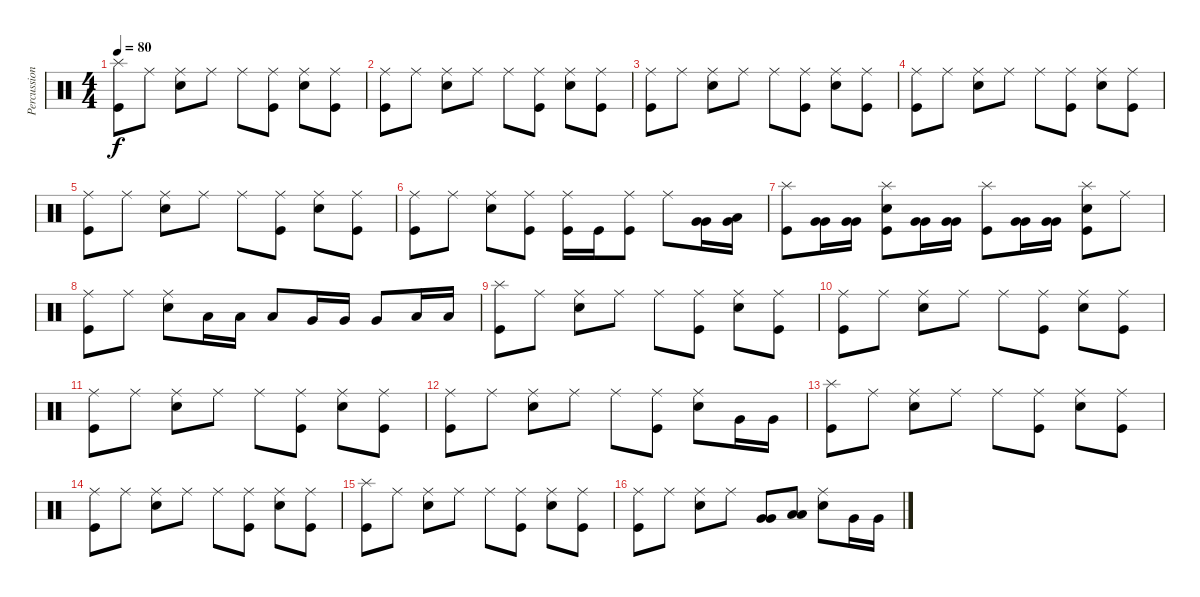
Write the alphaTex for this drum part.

\track ("Percussions" "Percussion") {instrument percussion}
\staff {score}
\articulation defaults
\ts (4 4)
\tempo 80
\clef neutral
\ks c
("Splash (hit)" "Kick (hit)").8{dy f} "Ride (middle)".8 ("Ride (middle)" "Snare (hit) 2").8 "Ride (middle)".8 "Ride (middle)".8 ("Ride (middle)" "Kick (hit)").8 ("Ride (middle)" "Snare (hit) 2").8 ("Ride (middle)" "Kick (hit)").8 |
("Ride (middle)" "Kick (hit)").8 "Ride (middle)".8 ("Ride (middle)" "Snare (hit) 2").8 "Ride (middle)".8 "Ride (middle)".8 ("Ride (middle)" "Kick (hit)").8 ("Ride (middle)" "Snare (hit) 2").8 ("Ride (middle)" "Kick (hit)").8 |
("Ride (middle)" "Kick (hit)").8 "Ride (middle)".8 ("Ride (middle)" "Snare (hit) 2").8 "Ride (middle)".8 "Ride (middle)".8 ("Ride (middle)" "Kick (hit)").8 ("Ride (middle)" "Snare (hit) 2").8 ("Ride (middle)" "Kick (hit)").8 |
("Ride (middle)" "Kick (hit)").8 "Ride (middle)".8 ("Ride (middle)" "Snare (hit) 2").8 "Ride (middle)".8 "Ride (middle)".8 ("Ride (middle)" "Kick (hit)").8 ("Ride (middle)" "Snare (hit) 2").8 ("Ride (middle)" "Kick (hit)").8 |
("Ride (middle)" "Kick (hit)").8 "Ride (middle)".8 ("Ride (middle)" "Snare (hit) 2").8 "Ride (middle)".8 "Ride (middle)".8 ("Ride (middle)" "Kick (hit)").8 ("Ride (middle)" "Snare (hit) 2").8 ("Ride (middle)" "Kick (hit)").8 |
("Ride (middle)" "Kick (hit)").8 "Ride (middle)".8 ("Ride (middle)" "Snare (hit) 2").8 ("Ride (middle)" "Kick (hit)").8 ("Ride (middle)" "Kick (hit)").16 "Kick (hit)".16 ("Ride (middle)" "Kick (hit)").8 "Ride (middle)".8 ("Very Low Tom (hit)" "Very Low Tom (hit)").16 ("Low Tom (hit)" "Very Low Tom (hit)").16 |
("Splash (hit)" "Kick (hit)").8 ("Very Low Tom (hit)" "Very Low Tom (hit)").16 ("Very Low Tom (hit)" "Very Low Tom (hit)").16 ("Splash (hit)" "Snare (hit) 2" "Kick (hit)").8 ("Very Low Tom (hit)" "Very Low Tom (hit)").16 ("Very Low Tom (hit)" "Very Low Tom (hit)").16 ("Splash (hit)" "Kick (hit)").8 ("Very Low Tom (hit)" "Very Low Tom (hit)").16 ("Very Low Tom (hit)" "Very Low Tom (hit)").16 ("Splash (hit)" "Snare (hit) 2" "Kick (hit)").8 "Ride (middle)".8 |
("Ride (middle)" "Kick (hit)").8 "Ride (middle)".8 ("Ride (middle)" "Snare (hit) 2").8 "Low Tom (hit)".16 "Low Tom (hit)".16 "Low Tom (hit)".8 "Very Low Tom (hit)".16 "Very Low Tom (hit)".16 "Very Low Tom (hit)".8 "Low Floor Tom (hit)".16 "Low Floor Tom (hit)".16 |
("Splash (hit)" "Kick (hit)").8 "Ride (middle)".8 ("Ride (middle)" "Snare (hit) 2").8 "Ride (middle)".8 "Ride (middle)".8 ("Ride (middle)" "Kick (hit)").8 ("Ride (middle)" "Snare (hit) 2").8 ("Ride (middle)" "Kick (hit)").8 |
("Ride (middle)" "Kick (hit)").8 "Ride (middle)".8 ("Ride (middle)" "Snare (hit) 2").8 "Ride (middle)".8 "Ride (middle)".8 ("Ride (middle)" "Kick (hit)").8 ("Ride (middle)" "Snare (hit) 2").8 ("Ride (middle)" "Kick (hit)").8 |
("Ride (middle)" "Kick (hit)").8 "Ride (middle)".8 ("Ride (middle)" "Snare (hit) 2").8 "Ride (middle)".8 "Ride (middle)".8 ("Ride (middle)" "Kick (hit)").8 ("Ride (middle)" "Snare (hit) 2").8 ("Ride (middle)" "Kick (hit)").8 |
("Ride (middle)" "Kick (hit)").8 "Ride (middle)".8 ("Ride (middle)" "Snare (hit) 2").8 "Ride (middle)".8 "Ride (middle)".8 ("Ride (middle)" "Kick (hit)").8 ("Ride (middle)" "Snare (hit) 2").8 "Very Low Tom (hit)".16 "Very Low Tom (hit)".16 |
("Splash (hit)" "Kick (hit)").8 "Ride (middle)".8 ("Ride (middle)" "Snare (hit) 2").8 "Ride (middle)".8 "Ride (middle)".8 ("Ride (middle)" "Kick (hit)").8 ("Ride (middle)" "Snare (hit) 2").8 ("Ride (middle)" "Kick (hit)").8 |
("Ride (middle)" "Kick (hit)").8 "Ride (middle)".8 ("Ride (middle)" "Snare (hit) 2").8 "Ride (middle)".8 "Ride (middle)".8 ("Ride (middle)" "Kick (hit)").8 ("Ride (middle)" "Snare (hit) 2").8 ("Ride (middle)" "Kick (hit)").8 |
("Splash (hit)" "Kick (hit)").8 "Ride (middle)".8 ("Ride (middle)" "Snare (hit) 2").8 "Ride (middle)".8 "Ride (middle)".8 ("Ride (middle)" "Kick (hit)").8 ("Ride (middle)" "Snare (hit) 2").8 ("Ride (middle)" "Kick (hit)").8 |
("Ride (middle)" "Kick (hit)").8 "Ride (middle)".8 ("Ride (middle)" "Snare (hit) 2").8 "Ride (middle)".8 ("Very Low Tom (hit)" "Very Low Tom (hit)").8 ("Low Tom (hit)" "Low Tom (hit)").8 ("Ride (middle)" "Snare (hit) 2").8 "Very Low Tom (hit)".16 "Very Low Tom (hit)".16
